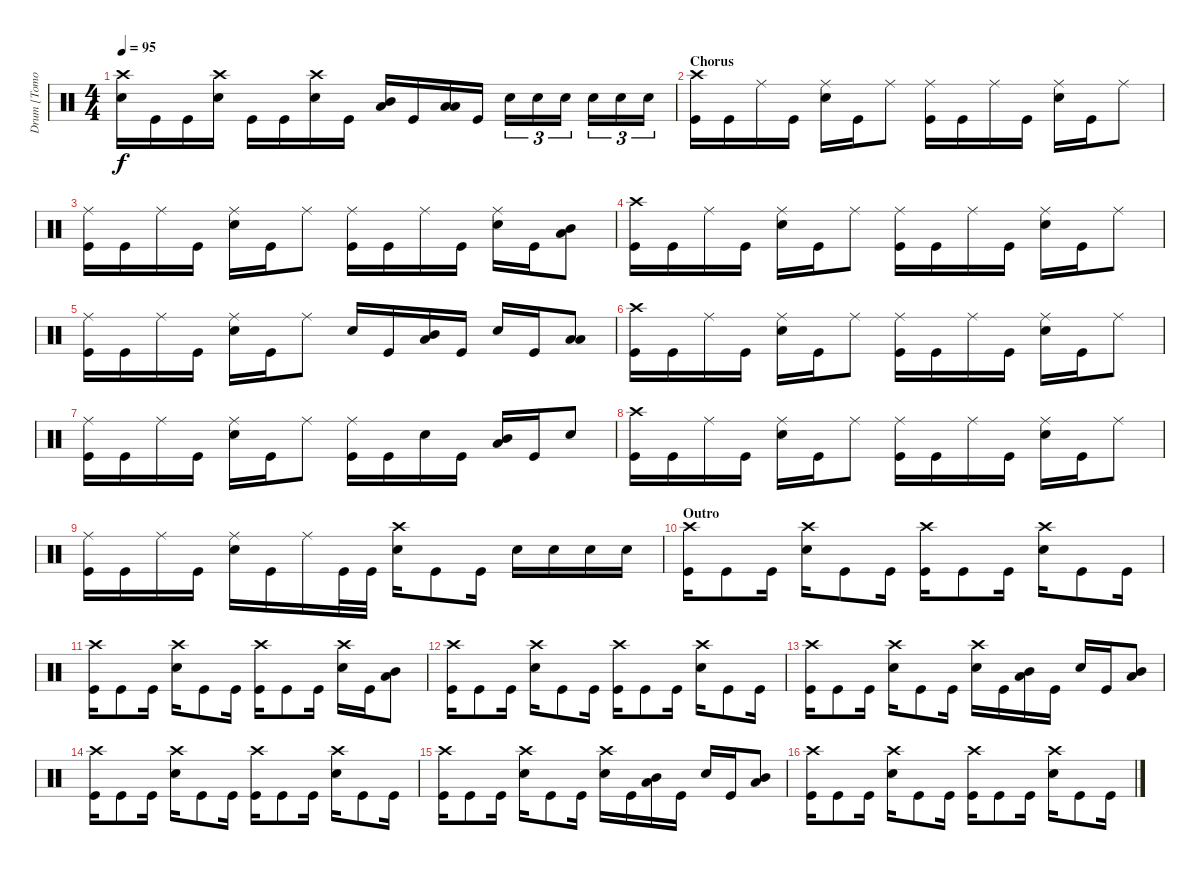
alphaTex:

\track ("Drum [Tomoya]" "Drum [Tomo") {instrument percussion}
\staff {score}
\articulation defaults
\ts (4 4)
\tempo 95
\clef neutral
\ks c
("Crash high (hit)" "Snare (hit) 2").16{dy f} "Kick (hit)".16 "Kick (hit)".16 ("Crash high (hit)" "Snare (hit) 2").16 "Kick (hit)".16 "Kick (hit)".16 ("Crash high (hit)" "Snare (hit) 2").16 "Kick (hit)".16 ("Low Tom (hit)" "Mid Tom (hit)").16 "Kick (hit)".16 ("Low Tom (hit)" "Low Floor Tom (hit)").16 "Kick (hit)".16 "Snare (hit) 2".16{tu (3 2)} "Snare (hit) 2".16{tu (3 2)} "Snare (hit) 2".16{tu (3 2)} "Snare (hit) 2".16{tu (3 2)} "Snare (hit) 2".16{tu (3 2)} "Snare (hit) 2".16{tu (3 2)} |
\section ("" "Chorus")
("Crash high (hit)" "Kick (hit)").16 "Kick (hit)".16 "Ride (middle)".16 "Kick (hit)".16 ("Ride (middle)" "Snare (hit) 2").16 "Kick (hit)".16 "Ride (middle)".8 ("Ride (middle)" "Kick (hit)").16 "Kick (hit)".16 "Ride (middle)".16 "Kick (hit)".16 ("Ride (middle)" "Snare (hit) 2").16 "Kick (hit)".16 "Ride (middle)".8 |
("Ride (middle)" "Kick (hit)").16 "Kick (hit)".16 "Ride (middle)".16 "Kick (hit)".16 ("Ride (middle)" "Snare (hit) 2").16 "Kick (hit)".16 "Ride (middle)".8 ("Ride (middle)" "Kick (hit)").16 "Kick (hit)".16 "Ride (middle)".16 "Kick (hit)".16 ("Ride (middle)" "Snare (hit) 2").16 "Kick (hit)".16 ("Mid Tom (hit)" "Low Tom (hit)").8 |
("Crash high (hit)" "Kick (hit)").16 "Kick (hit)".16 "Ride (middle)".16 "Kick (hit)".16 ("Ride (middle)" "Snare (hit) 2").16 "Kick (hit)".16 "Ride (middle)".8 ("Ride (middle)" "Kick (hit)").16 "Kick (hit)".16 "Ride (middle)".16 "Kick (hit)".16 ("Ride (middle)" "Snare (hit) 2").16 "Kick (hit)".16 "Ride (middle)".8 |
("Ride (middle)" "Kick (hit)").16 "Kick (hit)".16 "Ride (middle)".16 "Kick (hit)".16 ("Ride (middle)" "Snare (hit) 2").16 "Kick (hit)".16 "Ride (middle)".8 "Snare (hit) 2".16 "Kick (hit)".16 ("Low Tom (hit)" "Mid Tom (hit)").16 "Kick (hit)".16 "Snare (hit) 2".16 "Kick (hit)".16 ("Low Tom (hit)" "Low Floor Tom (hit)").8 |
("Crash high (hit)" "Kick (hit)").16 "Kick (hit)".16 "Ride (middle)".16 "Kick (hit)".16 ("Ride (middle)" "Snare (hit) 2").16 "Kick (hit)".16 "Ride (middle)".8 ("Ride (middle)" "Kick (hit)").16 "Kick (hit)".16 "Ride (middle)".16 "Kick (hit)".16 ("Ride (middle)" "Snare (hit) 2").16 "Kick (hit)".16 "Ride (middle)".8 |
("Ride (middle)" "Kick (hit)").16 "Kick (hit)".16 "Ride (middle)".16 "Kick (hit)".16 ("Ride (middle)" "Snare (hit) 2").16 "Kick (hit)".16 "Ride (middle)".8 ("Ride (middle)" "Kick (hit)").16 "Kick (hit)".16 "Snare (hit) 2".16 "Kick (hit)".16 ("Mid Tom (hit)" "Low Tom (hit)").16 "Kick (hit)".16 "Snare (hit) 2".8 |
("Crash high (hit)" "Kick (hit)").16 "Kick (hit)".16 "Ride (middle)".16 "Kick (hit)".16 ("Ride (middle)" "Snare (hit) 2").16 "Kick (hit)".16 "Ride (middle)".8 ("Ride (middle)" "Kick (hit)").16 "Kick (hit)".16 "Ride (middle)".16 "Kick (hit)".16 ("Ride (middle)" "Snare (hit) 2").16 "Kick (hit)".16 "Ride (middle)".8 |
("Ride (middle)" "Kick (hit)").16 "Kick (hit)".16 "Ride (middle)".16 "Kick (hit)".16 ("Ride (middle)" "Snare (hit) 2").16 "Kick (hit)".16 "Ride (middle)".16 "Kick (hit)".32 "Kick (hit)".32 ("Crash high (hit)" "Snare (hit) 2").16 "Kick (hit)".8 "Kick (hit)".16 "Snare (hit) 2".16 "Snare (hit) 2".16 "Snare (hit) 2".16 "Snare (hit) 2".16 |
\section ("" "Outro")
("Crash high (hit)" "Kick (hit)").16 "Kick (hit)".8 "Kick (hit)".16 ("Crash high (hit)" "Snare (hit) 2").16 "Kick (hit)".8 "Kick (hit)".16 ("Crash high (hit)" "Kick (hit)").16 "Kick (hit)".8 "Kick (hit)".16 ("Crash high (hit)" "Snare (hit) 2").16 "Kick (hit)".8 "Kick (hit)".16 |
("Crash high (hit)" "Kick (hit)").16 "Kick (hit)".8 "Kick (hit)".16 ("Crash high (hit)" "Snare (hit) 2").16 "Kick (hit)".8 "Kick (hit)".16 ("Crash high (hit)" "Kick (hit)").16 "Kick (hit)".8 "Kick (hit)".16 ("Crash high (hit)" "Snare (hit) 2").16 "Kick (hit)".16 ("Mid Tom (hit)" "Low Tom (hit)").8 |
("Crash high (hit)" "Kick (hit)").16 "Kick (hit)".8 "Kick (hit)".16 ("Crash high (hit)" "Snare (hit) 2").16 "Kick (hit)".8 "Kick (hit)".16 ("Crash high (hit)" "Kick (hit)").16 "Kick (hit)".8 "Kick (hit)".16 ("Crash high (hit)" "Snare (hit) 2").16 "Kick (hit)".8 "Kick (hit)".16 |
("Crash high (hit)" "Kick (hit)").16 "Kick (hit)".8 "Kick (hit)".16 ("Crash high (hit)" "Snare (hit) 2").16 "Kick (hit)".8 "Kick (hit)".16 ("Crash high (hit)" "Snare (hit) 2").16 "Kick (hit)".16 ("Low Tom (hit)" "Mid Tom (hit)").16 "Kick (hit)".16 "Snare (hit) 2".16 "Kick (hit)".16 ("Mid Tom (hit)" "Low Tom (hit)").8 |
("Crash high (hit)" "Kick (hit)").16 "Kick (hit)".8 "Kick (hit)".16 ("Crash high (hit)" "Snare (hit) 2").16 "Kick (hit)".8 "Kick (hit)".16 ("Crash high (hit)" "Kick (hit)").16 "Kick (hit)".8 "Kick (hit)".16 ("Crash high (hit)" "Snare (hit) 2").16 "Kick (hit)".8 "Kick (hit)".16 |
("Crash high (hit)" "Kick (hit)").16 "Kick (hit)".8 "Kick (hit)".16 ("Crash high (hit)" "Snare (hit) 2").16 "Kick (hit)".8 "Kick (hit)".16 ("Crash high (hit)" "Snare (hit) 2").16 "Kick (hit)".16 ("Low Tom (hit)" "Mid Tom (hit)").16 "Kick (hit)".16 "Snare (hit) 2".16 "Kick (hit)".16 ("Mid Tom (hit)" "Low Tom (hit)").8 |
("Crash high (hit)" "Kick (hit)").16 "Kick (hit)".8 "Kick (hit)".16 ("Crash high (hit)" "Snare (hit) 2").16 "Kick (hit)".8 "Kick (hit)".16 ("Crash high (hit)" "Kick (hit)").16 "Kick (hit)".8 "Kick (hit)".16 ("Crash high (hit)" "Snare (hit) 2").16 "Kick (hit)".8 "Kick (hit)".16
